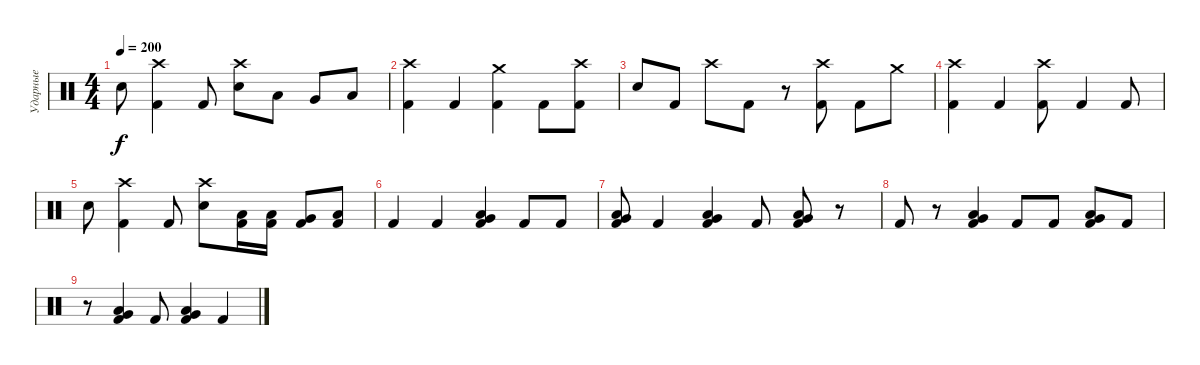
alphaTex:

\track ("Ударные" "Ударные") {instrument percussion}
\staff {score}
\articulation defaults
\ts (4 4)
\tempo 200
\clef neutral
\ks c "Snare (hit) 2".8{dy f}
("Crash high (hit)" "Kick (hit) 2").4 "Kick (hit) 2".8 ("Crash high (hit)" "Snare (hit) 2").8 "Low Tom (hit)".8 "Very Low Tom (hit)".8 "Low Floor Tom (hit)".8 |
("Crash high (hit)" "Kick (hit) 2").4 "Kick (hit) 2".4 ("Crash medium (hit)" "Kick (hit) 2").4 "Kick (hit) 2".8 ("Crash high (hit)" "Kick (hit) 2").8 |
"Snare (hit) 2".8 "Kick (hit) 2".8 "Crash high (hit)".8 "Kick (hit) 2".8 r.8 ("Crash high (hit)" "Kick (hit) 2").8 "Kick (hit) 2".8 "Crash medium (hit)".8 |
("Crash high (hit)" "Kick (hit) 2").4 "Kick (hit) 2".4 ("Crash high (hit)" "Kick (hit) 2").8 "Kick (hit) 2".4 "Kick (hit) 2".8 |
"Snare (hit) 2".8 ("Crash high (hit)" "Kick (hit) 2").4 "Kick (hit) 2".8 ("Crash high (hit)" "Snare (hit) 2").8 ("Low Tom (hit)" "Kick (hit) 2").16 ("Low Tom (hit)" "Kick (hit) 2").16 ("Very Low Tom (hit)" "Kick (hit) 2").8 ("Low Floor Tom (hit)" "Kick (hit) 2").8 |
"Kick (hit) 2".4 "Kick (hit) 2".4 ("Very Low Tom (hit)" "Low Floor Tom (hit)" "Kick (hit) 2").4 "Kick (hit) 2".8 "Kick (hit) 2".8 |
("Very Low Tom (hit)" "Low Floor Tom (hit)" "Kick (hit) 2").8 "Kick (hit) 2".4 ("Very Low Tom (hit)" "Low Floor Tom (hit)" "Kick (hit) 2").4 "Kick (hit) 2".8 ("Very Low Tom (hit)" "Low Floor Tom (hit)" "Kick (hit) 2").8 r.8 |
"Kick (hit) 2".8 r.8 ("Very Low Tom (hit)" "Low Floor Tom (hit)" "Kick (hit) 2").4 "Kick (hit) 2".8 "Kick (hit) 2".8 ("Very Low Tom (hit)" "Low Floor Tom (hit)" "Kick (hit) 2").8 "Kick (hit) 2".8 |
r.8 ("Very Low Tom (hit)" "Low Floor Tom (hit)" "Kick (hit) 2").4 "Kick (hit) 2".8 ("Very Low Tom (hit)" "Low Floor Tom (hit)" "Kick (hit) 2").4 "Kick (hit) 2".4
